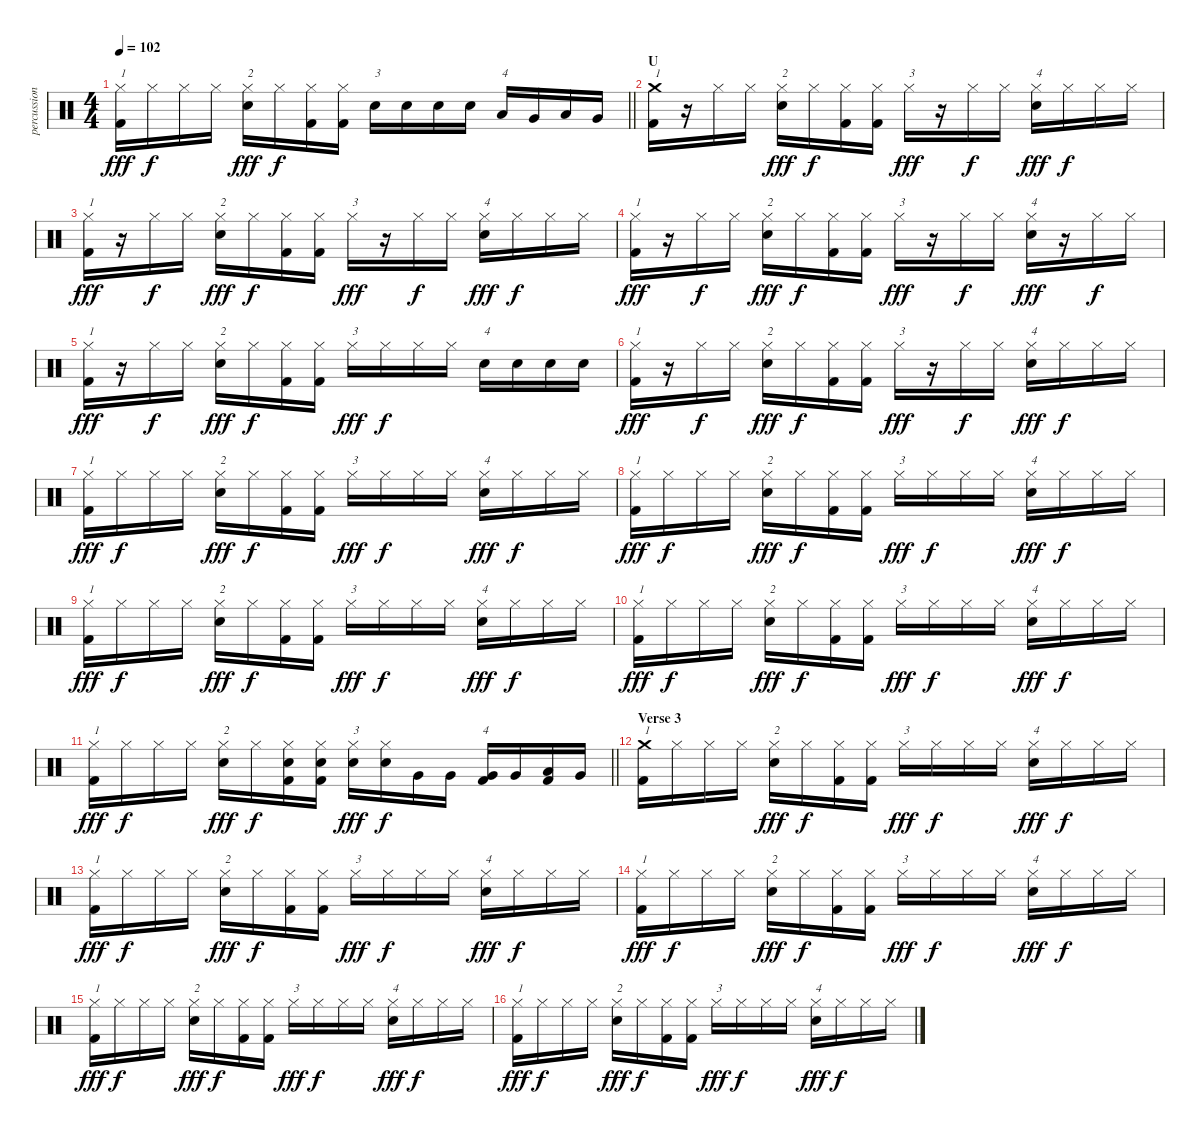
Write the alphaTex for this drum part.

\track ("percussion" "percussion") {instrument percussion}
\staff {score}
\articulation defaults
\ts (4 4)
\tempo 102
\clef neutral
\barLineRight lightlight
\ks c
("Hi-Hat (closed)" "Kick (hit) 2").16{txt "1" dy fff} "Hi-Hat (closed)".16{dy f} "Hi-Hat (closed)".16 "Hi-Hat (closed)".16 ("Snare (hit) 2" "Hi-Hat (closed)").16{txt "2" dy fff} "Hi-Hat (closed)".16{dy f} ("Hi-Hat (closed)" "Kick (hit) 2").16 ("Hi-Hat (closed)" "Kick (hit) 2").16 "Snare (hit) 2".16{txt "3"} "Snare (hit) 2".16 "Snare (hit) 2".16 "Snare (hit) 2".16 "Low Tom (hit)".16{txt "4"} "Very Low Tom (hit)".16 "Low Tom (hit)".16 "Very Low Tom (hit)".16 |
\section ("" "U")
("Crash medium (hit)" "Kick (hit) 2").16{txt "1"} r.16 "Hi-Hat (closed)".16 "Hi-Hat (closed)".16 ("Snare (hit) 2" "Hi-Hat (closed)").16{txt "2" dy fff} "Hi-Hat (closed)".16{dy f} ("Hi-Hat (closed)" "Kick (hit) 2").16 ("Hi-Hat (closed)" "Kick (hit) 2").16 "Hi-Hat (closed)".16{txt "3" dy fff} r.16 "Hi-Hat (closed)".16{dy f} "Hi-Hat (closed)".16 ("Snare (hit) 2" "Hi-Hat (closed)").16{txt "4" dy fff} "Hi-Hat (closed)".16{dy f} "Hi-Hat (closed)".16 "Hi-Hat (closed)".16 |
("Hi-Hat (closed)" "Kick (hit) 2").16{txt "1" dy fff} r.16 "Hi-Hat (closed)".16{dy f} "Hi-Hat (closed)".16 ("Snare (hit) 2" "Hi-Hat (closed)").16{txt "2" dy fff} "Hi-Hat (closed)".16{dy f} ("Hi-Hat (closed)" "Kick (hit) 2").16 ("Hi-Hat (closed)" "Kick (hit) 2").16 "Hi-Hat (closed)".16{txt "3" dy fff} r.16 "Hi-Hat (closed)".16{dy f} "Hi-Hat (closed)".16 ("Snare (hit) 2" "Hi-Hat (closed)").16{txt "4" dy fff} "Hi-Hat (closed)".16{dy f} "Hi-Hat (closed)".16 "Hi-Hat (closed)".16 |
("Hi-Hat (closed)" "Kick (hit) 2").16{txt "1" dy fff} r.16 "Hi-Hat (closed)".16{dy f} "Hi-Hat (closed)".16 ("Snare (hit) 2" "Hi-Hat (closed)").16{txt "2" dy fff} "Hi-Hat (closed)".16{dy f} ("Hi-Hat (closed)" "Kick (hit) 2").16 ("Hi-Hat (closed)" "Kick (hit) 2").16 "Hi-Hat (closed)".16{txt "3" dy fff} r.16 "Hi-Hat (closed)".16{dy f} "Hi-Hat (closed)".16 ("Snare (hit) 2" "Hi-Hat (closed)").16{txt "4" dy fff} r.16 "Hi-Hat (closed)".16{dy f} "Hi-Hat (closed)".16 |
("Hi-Hat (closed)" "Kick (hit) 2").16{txt "1" dy fff} r.16 "Hi-Hat (closed)".16{dy f} "Hi-Hat (closed)".16 ("Snare (hit) 2" "Hi-Hat (closed)").16{txt "2" dy fff} "Hi-Hat (closed)".16{dy f} ("Hi-Hat (closed)" "Kick (hit) 2").16 ("Hi-Hat (closed)" "Kick (hit) 2").16 "Hi-Hat (closed)".16{txt "3" dy fff} "Hi-Hat (closed)".16{dy f} "Hi-Hat (closed)".16 "Hi-Hat (closed)".16 "Snare (hit) 2".16{txt "4"} "Snare (hit) 2".16 "Snare (hit) 2".16 "Snare (hit) 2".16 |
("Hi-Hat (closed)" "Kick (hit) 2").16{txt "1" dy fff} r.16 "Hi-Hat (closed)".16{dy f} "Hi-Hat (closed)".16 ("Snare (hit) 2" "Hi-Hat (closed)").16{txt "2" dy fff} "Hi-Hat (closed)".16{dy f} ("Hi-Hat (closed)" "Kick (hit) 2").16 ("Hi-Hat (closed)" "Kick (hit) 2").16 "Hi-Hat (closed)".16{txt "3" dy fff} r.16 "Hi-Hat (closed)".16{dy f} "Hi-Hat (closed)".16 ("Snare (hit) 2" "Hi-Hat (closed)").16{txt "4" dy fff} "Hi-Hat (closed)".16{dy f} "Hi-Hat (closed)".16 "Hi-Hat (closed)".16 |
("Hi-Hat (closed)" "Kick (hit) 2").16{txt "1" dy fff} "Hi-Hat (closed)".16{dy f} "Hi-Hat (closed)".16 "Hi-Hat (closed)".16 ("Snare (hit) 2" "Hi-Hat (closed)").16{txt "2" dy fff} "Hi-Hat (closed)".16{dy f} ("Hi-Hat (closed)" "Kick (hit) 2").16 ("Hi-Hat (closed)" "Kick (hit) 2").16 "Hi-Hat (closed)".16{txt "3" dy fff} "Hi-Hat (closed)".16{dy f} "Hi-Hat (closed)".16 "Hi-Hat (closed)".16 ("Snare (hit) 2" "Hi-Hat (closed)").16{txt "4" dy fff} "Hi-Hat (closed)".16{dy f} "Hi-Hat (closed)".16 "Hi-Hat (closed)".16 |
("Hi-Hat (closed)" "Kick (hit) 2").16{txt "1" dy fff} "Hi-Hat (closed)".16{dy f} "Hi-Hat (closed)".16 "Hi-Hat (closed)".16 ("Snare (hit) 2" "Hi-Hat (closed)").16{txt "2" dy fff} "Hi-Hat (closed)".16{dy f} ("Hi-Hat (closed)" "Kick (hit) 2").16 ("Hi-Hat (closed)" "Kick (hit) 2").16 "Hi-Hat (closed)".16{txt "3" dy fff} "Hi-Hat (closed)".16{dy f} "Hi-Hat (closed)".16 "Hi-Hat (closed)".16 ("Snare (hit) 2" "Hi-Hat (closed)").16{txt "4" dy fff} "Hi-Hat (closed)".16{dy f} "Hi-Hat (closed)".16 "Hi-Hat (closed)".16 |
("Hi-Hat (closed)" "Kick (hit) 2").16{txt "1" dy fff} "Hi-Hat (closed)".16{dy f} "Hi-Hat (closed)".16 "Hi-Hat (closed)".16 ("Snare (hit) 2" "Hi-Hat (closed)").16{txt "2" dy fff} "Hi-Hat (closed)".16{dy f} ("Hi-Hat (closed)" "Kick (hit) 2").16 ("Hi-Hat (closed)" "Kick (hit) 2").16 "Hi-Hat (closed)".16{txt "3" dy fff} "Hi-Hat (closed)".16{dy f} "Hi-Hat (closed)".16 "Hi-Hat (closed)".16 ("Snare (hit) 2" "Hi-Hat (closed)").16{txt "4" dy fff} "Hi-Hat (closed)".16{dy f} "Hi-Hat (closed)".16 "Hi-Hat (closed)".16 |
("Hi-Hat (closed)" "Kick (hit) 2").16{txt "1" dy fff} "Hi-Hat (closed)".16{dy f} "Hi-Hat (closed)".16 "Hi-Hat (closed)".16 ("Snare (hit) 2" "Hi-Hat (closed)").16{txt "2" dy fff} "Hi-Hat (closed)".16{dy f} ("Hi-Hat (closed)" "Kick (hit) 2").16 ("Hi-Hat (closed)" "Kick (hit) 2").16 "Hi-Hat (closed)".16{txt "3" dy fff} "Hi-Hat (closed)".16{dy f} "Hi-Hat (closed)".16 "Hi-Hat (closed)".16 ("Snare (hit) 2" "Hi-Hat (closed)").16{txt "4" dy fff} "Hi-Hat (closed)".16{dy f} "Hi-Hat (closed)".16 "Hi-Hat (closed)".16 |
\barLineRight lightlight
("Hi-Hat (closed)" "Kick (hit) 2").16{txt "1" dy fff} "Hi-Hat (closed)".16{dy f} "Hi-Hat (closed)".16 "Hi-Hat (closed)".16 ("Snare (hit) 2" "Hi-Hat (closed)").16{txt "2" dy fff} "Hi-Hat (closed)".16{dy f} ("Snare (hit) 2" "Hi-Hat (closed)" "Kick (hit) 2").16 ("Snare (hit) 2" "Hi-Hat (closed)" "Kick (hit) 2").16 ("Snare (hit) 2" "Hi-Hat (closed)").16{txt "3" dy fff} ("Snare (hit) 2" "Hi-Hat (closed)").16{dy f} "Very Low Tom (hit)".16 "Very Low Tom (hit)".16 ("Very Low Tom (hit)" "Kick (hit) 2").16{txt "4"} "Very Low Tom (hit)".16 ("Low Tom (hit)" "Kick (hit) 2").16 "Very Low Tom (hit)".16 |
\section ("" "Verse 3")
("Crash medium (hit)" "Kick (hit) 2").16{txt "1"} "Hi-Hat (closed)".16 "Hi-Hat (closed)".16 "Hi-Hat (closed)".16 ("Snare (hit) 2" "Hi-Hat (closed)").16{txt "2" dy fff} "Hi-Hat (closed)".16{dy f} ("Hi-Hat (closed)" "Kick (hit) 2").16 ("Hi-Hat (closed)" "Kick (hit) 2").16 "Hi-Hat (closed)".16{txt "3" dy fff} "Hi-Hat (closed)".16{dy f} "Hi-Hat (closed)".16 "Hi-Hat (closed)".16 ("Snare (hit) 2" "Hi-Hat (closed)").16{txt "4" dy fff} "Hi-Hat (closed)".16{dy f} "Hi-Hat (closed)".16 "Hi-Hat (closed)".16 |
("Hi-Hat (closed)" "Kick (hit) 2").16{txt "1" dy fff} "Hi-Hat (closed)".16{dy f} "Hi-Hat (closed)".16 "Hi-Hat (closed)".16 ("Snare (hit) 2" "Hi-Hat (closed)").16{txt "2" dy fff} "Hi-Hat (closed)".16{dy f} ("Hi-Hat (closed)" "Kick (hit) 2").16 ("Hi-Hat (closed)" "Kick (hit) 2").16 "Hi-Hat (closed)".16{txt "3" dy fff} "Hi-Hat (closed)".16{dy f} "Hi-Hat (closed)".16 "Hi-Hat (closed)".16 ("Snare (hit) 2" "Hi-Hat (closed)").16{txt "4" dy fff} "Hi-Hat (closed)".16{dy f} "Hi-Hat (closed)".16 "Hi-Hat (closed)".16 |
("Hi-Hat (closed)" "Kick (hit) 2").16{txt "1" dy fff} "Hi-Hat (closed)".16{dy f} "Hi-Hat (closed)".16 "Hi-Hat (closed)".16 ("Snare (hit) 2" "Hi-Hat (closed)").16{txt "2" dy fff} "Hi-Hat (closed)".16{dy f} ("Hi-Hat (closed)" "Kick (hit) 2").16 ("Hi-Hat (closed)" "Kick (hit) 2").16 "Hi-Hat (closed)".16{txt "3" dy fff} "Hi-Hat (closed)".16{dy f} "Hi-Hat (closed)".16 "Hi-Hat (closed)".16 ("Snare (hit) 2" "Hi-Hat (closed)").16{txt "4" dy fff} "Hi-Hat (closed)".16{dy f} "Hi-Hat (closed)".16 "Hi-Hat (closed)".16 |
("Hi-Hat (closed)" "Kick (hit) 2").16{txt "1" dy fff} "Hi-Hat (closed)".16{dy f} "Hi-Hat (closed)".16 "Hi-Hat (closed)".16 ("Snare (hit) 2" "Hi-Hat (closed)").16{txt "2" dy fff} "Hi-Hat (closed)".16{dy f} ("Hi-Hat (closed)" "Kick (hit) 2").16 ("Hi-Hat (closed)" "Kick (hit) 2").16 "Hi-Hat (closed)".16{txt "3" dy fff} "Hi-Hat (closed)".16{dy f} "Hi-Hat (closed)".16 "Hi-Hat (closed)".16 ("Snare (hit) 2" "Hi-Hat (closed)").16{txt "4" dy fff} "Hi-Hat (closed)".16{dy f} "Hi-Hat (closed)".16 "Hi-Hat (closed)".16 |
("Hi-Hat (closed)" "Kick (hit) 2").16{txt "1" dy fff} "Hi-Hat (closed)".16{dy f} "Hi-Hat (closed)".16 "Hi-Hat (closed)".16 ("Snare (hit) 2" "Hi-Hat (closed)").16{txt "2" dy fff} "Hi-Hat (closed)".16{dy f} ("Hi-Hat (closed)" "Kick (hit) 2").16 ("Hi-Hat (closed)" "Kick (hit) 2").16 "Hi-Hat (closed)".16{txt "3" dy fff} "Hi-Hat (closed)".16{dy f} "Hi-Hat (closed)".16 "Hi-Hat (closed)".16 ("Snare (hit) 2" "Hi-Hat (closed)").16{txt "4" dy fff} "Hi-Hat (closed)".16{dy f} "Hi-Hat (closed)".16 "Hi-Hat (closed)".16
